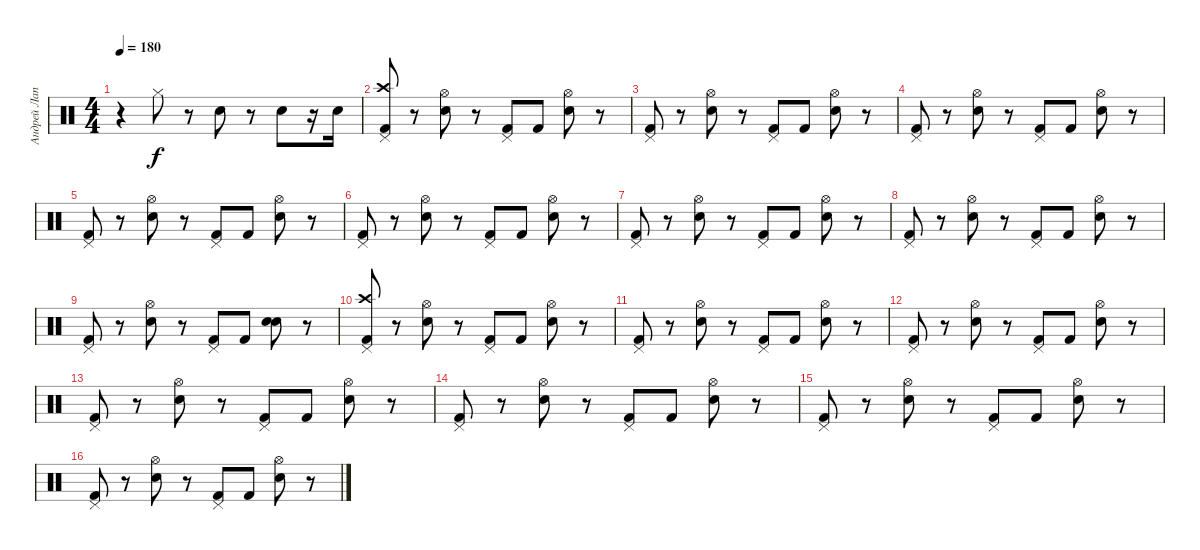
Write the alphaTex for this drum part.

\track ("Андрей Лаптев" "Андрей Лап") {instrument percussion}
\staff {score}
\articulation defaults
\ts (4 4)
\tempo 180
\clef neutral
\ks c
r.4{dy f} "Hi-Hat (closed)".8 r.8 "Snare (hit) 2".8 r.8 "Snare (hit) 2".8 r.16 "Snare (hit) 2".16 |
("Kick (hit) 2" "Crash high (hit)" "Pedal Hi-Hat (hit)").8 r.8 ("Snare (hit) 2" "Hi-Hat (open)").8 r.8 ("Kick (hit) 2" "Pedal Hi-Hat (hit)").8 "Kick (hit) 2".8 ("Snare (hit) 2" "Hi-Hat (open)").8 r.8 |
("Kick (hit) 2" "Pedal Hi-Hat (hit)").8 r.8 ("Snare (hit) 2" "Hi-Hat (open)").8 r.8 ("Kick (hit) 2" "Pedal Hi-Hat (hit)").8 "Kick (hit) 2".8 ("Snare (hit) 2" "Hi-Hat (open)").8 r.8 |
("Kick (hit) 2" "Pedal Hi-Hat (hit)").8 r.8 ("Snare (hit) 2" "Hi-Hat (open)").8 r.8 ("Kick (hit) 2" "Pedal Hi-Hat (hit)").8 "Kick (hit) 2".8 ("Snare (hit) 2" "Hi-Hat (open)").8 r.8 |
("Kick (hit) 2" "Pedal Hi-Hat (hit)").8 r.8 ("Snare (hit) 2" "Hi-Hat (open)").8 r.8 ("Kick (hit) 2" "Pedal Hi-Hat (hit)").8 "Kick (hit) 2".8 ("Snare (hit) 2" "Hi-Hat (open)").8 r.8 |
("Kick (hit) 2" "Pedal Hi-Hat (hit)").8 r.8 ("Snare (hit) 2" "Hi-Hat (open)").8 r.8 ("Kick (hit) 2" "Pedal Hi-Hat (hit)").8 "Kick (hit) 2".8 ("Snare (hit) 2" "Hi-Hat (open)").8 r.8 |
("Kick (hit) 2" "Pedal Hi-Hat (hit)").8 r.8 ("Snare (hit) 2" "Hi-Hat (open)").8 r.8 ("Kick (hit) 2" "Pedal Hi-Hat (hit)").8 "Kick (hit) 2".8 ("Snare (hit) 2" "Hi-Hat (open)").8 r.8 |
("Kick (hit) 2" "Pedal Hi-Hat (hit)").8 r.8 ("Snare (hit) 2" "Hi-Hat (open)").8 r.8 ("Kick (hit) 2" "Pedal Hi-Hat (hit)").8 "Kick (hit) 2".8 ("Snare (hit) 2" "Hi-Hat (open)").8 r.8 |
("Kick (hit) 2" "Pedal Hi-Hat (hit)").8 r.8 ("Snare (hit) 2" "Hi-Hat (open)").8 r.8 ("Kick (hit) 2" "Pedal Hi-Hat (hit)").8 "Kick (hit) 2".8 ("Snare (hit) 2" "Electric Snare (hit)").8 r.8 |
("Kick (hit) 2" "Crash high (hit)" "Pedal Hi-Hat (hit)").8 r.8 ("Snare (hit) 2" "Hi-Hat (open)").8 r.8 ("Kick (hit) 2" "Pedal Hi-Hat (hit)").8 "Kick (hit) 2".8 ("Snare (hit) 2" "Hi-Hat (open)").8 r.8 |
("Kick (hit) 2" "Pedal Hi-Hat (hit)").8 r.8 ("Snare (hit) 2" "Hi-Hat (open)").8 r.8 ("Kick (hit) 2" "Pedal Hi-Hat (hit)").8 "Kick (hit) 2".8 ("Snare (hit) 2" "Hi-Hat (open)").8 r.8 |
("Kick (hit) 2" "Pedal Hi-Hat (hit)").8 r.8 ("Snare (hit) 2" "Hi-Hat (open)").8 r.8 ("Kick (hit) 2" "Pedal Hi-Hat (hit)").8 "Kick (hit) 2".8 ("Snare (hit) 2" "Hi-Hat (open)").8 r.8 |
("Kick (hit) 2" "Pedal Hi-Hat (hit)").8 r.8 ("Snare (hit) 2" "Hi-Hat (open)").8 r.8 ("Kick (hit) 2" "Pedal Hi-Hat (hit)").8 "Kick (hit) 2".8 ("Snare (hit) 2" "Hi-Hat (open)").8 r.8 |
("Kick (hit) 2" "Pedal Hi-Hat (hit)").8 r.8 ("Snare (hit) 2" "Hi-Hat (open)").8 r.8 ("Kick (hit) 2" "Pedal Hi-Hat (hit)").8 "Kick (hit) 2".8 ("Snare (hit) 2" "Hi-Hat (open)").8 r.8 |
("Kick (hit) 2" "Pedal Hi-Hat (hit)").8 r.8 ("Snare (hit) 2" "Hi-Hat (open)").8 r.8 ("Kick (hit) 2" "Pedal Hi-Hat (hit)").8 "Kick (hit) 2".8 ("Snare (hit) 2" "Hi-Hat (open)").8 r.8 |
("Kick (hit) 2" "Pedal Hi-Hat (hit)").8 r.8 ("Snare (hit) 2" "Hi-Hat (open)").8 r.8 ("Kick (hit) 2" "Pedal Hi-Hat (hit)").8 "Kick (hit) 2".8 ("Snare (hit) 2" "Hi-Hat (open)").8 r.8
